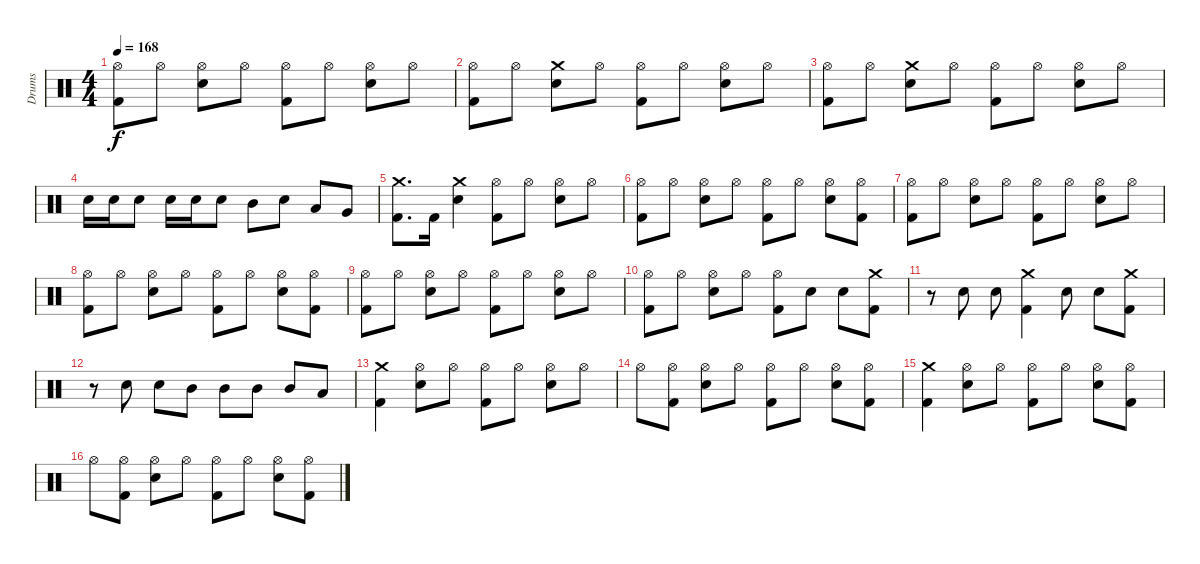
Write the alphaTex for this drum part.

\track ("Drums" "Drums") {instrument percussion}
\staff {score}
\articulation defaults
\ts (4 4)
\tempo 168
\clef neutral
\ks c
("Kick (hit) 2" "Hi-Hat (open)").8{dy f} "Hi-Hat (open)".8 ("Hi-Hat (open)" "Snare (hit) 2").8 "Hi-Hat (open)".8 ("Hi-Hat (open)" "Kick (hit) 2").8 "Hi-Hat (open)".8 ("Hi-Hat (open)" "Snare (hit) 2").8 "Hi-Hat (open)".8 |
("Hi-Hat (open)" "Kick (hit) 2").8 "Hi-Hat (open)".8 ("Crash medium (hit)" "Snare (hit) 2").8 "Hi-Hat (open)".8 ("Hi-Hat (open)" "Kick (hit) 2").8 "Hi-Hat (open)".8 ("Hi-Hat (open)" "Snare (hit) 2").8 "Hi-Hat (open)".8 |
("Hi-Hat (open)" "Kick (hit) 2").8 "Hi-Hat (open)".8 ("Crash medium (hit)" "Snare (hit) 2").8 "Hi-Hat (open)".8 ("Hi-Hat (open)" "Kick (hit) 2").8 "Hi-Hat (open)".8 ("Hi-Hat (open)" "Snare (hit) 2").8 "Hi-Hat (open)".8 |
"Snare (hit) 2".16 "Snare (hit) 2".16 "Snare (hit) 2".8 "Snare (hit) 2".16 "Snare (hit) 2".16 "Snare (hit) 2".8 "Mid Tom (hit)".8 "Snare (hit) 2".8 "Low Tom (hit)".8 "Very Low Tom (hit)".8 |
("Crash medium (hit)" "Kick (hit) 2").8{d} "Kick (hit) 2".16 ("Crash medium (hit)" "Snare (hit) 2").4 ("Hi-Hat (open)" "Kick (hit) 2").8 "Hi-Hat (open)".8 ("Hi-Hat (open)" "Snare (hit) 2").8 "Hi-Hat (open)".8 |
("Kick (hit) 2" "Hi-Hat (open)").8 "Hi-Hat (open)".8 ("Snare (hit) 2" "Hi-Hat (open)").8 "Hi-Hat (open)".8 ("Kick (hit) 2" "Hi-Hat (open)").8 "Hi-Hat (open)".8 ("Snare (hit) 2" "Hi-Hat (open)").8 ("Kick (hit) 2" "Hi-Hat (open)").8 |
("Kick (hit) 2" "Hi-Hat (open)").8 "Hi-Hat (open)".8 ("Snare (hit) 2" "Hi-Hat (open)").8 "Hi-Hat (open)".8 ("Kick (hit) 2" "Hi-Hat (open)").8 "Hi-Hat (open)".8 ("Snare (hit) 2" "Hi-Hat (open)").8 "Hi-Hat (open)".8 |
("Kick (hit) 2" "Hi-Hat (open)").8 "Hi-Hat (open)".8 ("Snare (hit) 2" "Hi-Hat (open)").8 "Hi-Hat (open)".8 ("Kick (hit) 2" "Hi-Hat (open)").8 "Hi-Hat (open)".8 ("Snare (hit) 2" "Hi-Hat (open)").8 ("Kick (hit) 2" "Hi-Hat (open)").8 |
("Kick (hit) 2" "Hi-Hat (open)").8 "Hi-Hat (open)".8 ("Snare (hit) 2" "Hi-Hat (open)").8 "Hi-Hat (open)".8 ("Kick (hit) 2" "Hi-Hat (open)").8 "Hi-Hat (open)".8 ("Snare (hit) 2" "Hi-Hat (open)").8 "Hi-Hat (open)".8 |
("Kick (hit) 2" "Hi-Hat (open)").8 "Hi-Hat (open)".8 ("Snare (hit) 2" "Hi-Hat (open)").8 "Hi-Hat (open)".8 ("Kick (hit) 2" "Hi-Hat (open)").8 "Snare (hit) 2".8 "Snare (hit) 2".8 ("Crash medium (hit)" "Kick (hit) 2").8 |
r.8 "Snare (hit) 2".8 "Snare (hit) 2".8 ("Crash medium (hit)" "Kick (hit) 2").4 "Snare (hit) 2".8 "Snare (hit) 2".8 ("Crash medium (hit)" "Kick (hit) 2").8 |
r.8 "Snare (hit) 2".8 "Snare (hit) 2".8 "Mid Tom (hit)".8 "Mid Tom (hit)".8 "Mid Tom (hit)".8 "Mid Tom (hit)".8 "Low Tom (hit)".8 |
("Crash medium (hit)" "Kick (hit) 2").4 ("Snare (hit) 2" "Hi-Hat (open)").8 "Hi-Hat (open)".8 ("Kick (hit) 2" "Hi-Hat (open)").8 "Hi-Hat (open)".8 ("Snare (hit) 2" "Hi-Hat (open)").8 "Hi-Hat (open)".8 |
"Hi-Hat (open)".8 ("Kick (hit) 2" "Hi-Hat (open)").8 ("Snare (hit) 2" "Hi-Hat (open)").8 "Hi-Hat (open)".8 ("Kick (hit) 2" "Hi-Hat (open)").8 "Hi-Hat (open)".8 ("Snare (hit) 2" "Hi-Hat (open)").8 ("Kick (hit) 2" "Hi-Hat (open)").8 |
("Kick (hit) 2" "Crash medium (hit)").4 ("Snare (hit) 2" "Hi-Hat (open)").8 "Hi-Hat (open)".8 ("Kick (hit) 2" "Hi-Hat (open)").8 "Hi-Hat (open)".8 ("Snare (hit) 2" "Hi-Hat (open)").8 ("Kick (hit) 2" "Hi-Hat (open)").8 |
"Hi-Hat (open)".8 ("Hi-Hat (open)" "Kick (hit) 2").8 ("Snare (hit) 2" "Hi-Hat (open)").8 "Hi-Hat (open)".8 ("Kick (hit) 2" "Hi-Hat (open)").8 "Hi-Hat (open)".8 ("Snare (hit) 2" "Hi-Hat (open)").8 ("Kick (hit) 2" "Hi-Hat (open)").8
